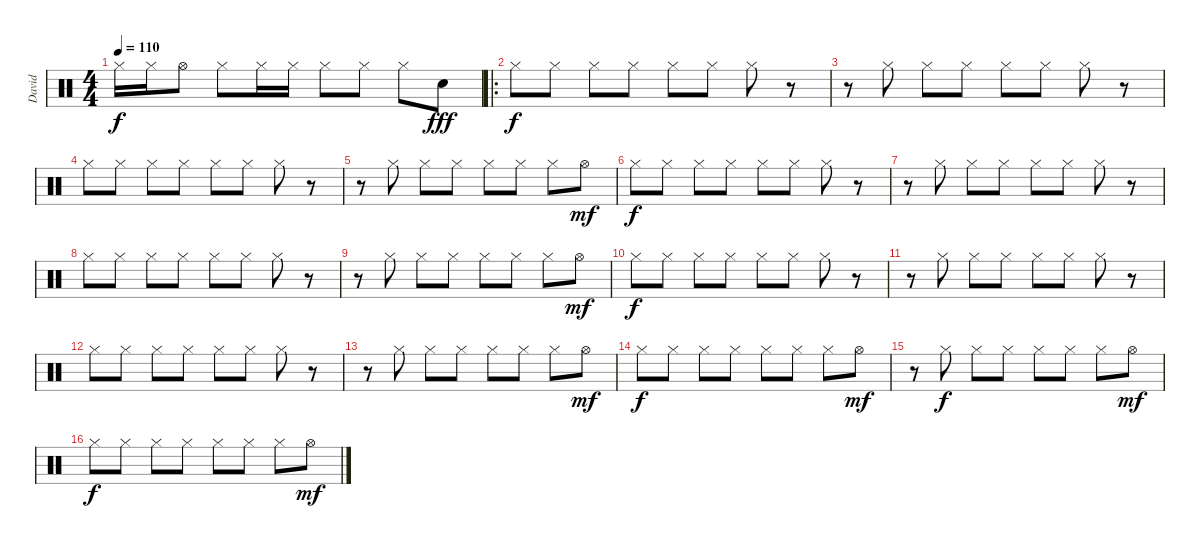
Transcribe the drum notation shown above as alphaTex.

\track ("David" "David") {instrument percussion}
\staff {score}
\articulation defaults
\ts (4 4)
\tempo 110
\clef neutral
\ks c "Hi-Hat (closed)".16{dy f} "Hi-Hat (closed)".16 "Hi-Hat (open)".8 "Hi-Hat (closed)".8 "Hi-Hat (closed)".16 "Hi-Hat (closed)".16 "Hi-Hat (closed)".8 "Hi-Hat (closed)".8 "Hi-Hat (closed)".8 "Metronome (bell)".8{dy fff}
|
\ro "Hi-Hat (closed)".8{dy f} "Hi-Hat (closed)".8 "Hi-Hat (closed)".8 "Hi-Hat (closed)".8 "Hi-Hat (closed)".8 "Hi-Hat (closed)".8 "Hi-Hat (closed)".8
r.8 |
r.8 "Hi-Hat (closed)".8 "Hi-Hat (closed)".8 "Hi-Hat (closed)".8 "Hi-Hat (closed)".8 "Hi-Hat (closed)".8 "Hi-Hat (closed)".8 r.8 |
"Hi-Hat (closed)".8 "Hi-Hat (closed)".8 "Hi-Hat (closed)".8 "Hi-Hat (closed)".8 "Hi-Hat (closed)".8 "Hi-Hat (closed)".8 "Hi-Hat (closed)".8 r.8 |
r.8 "Hi-Hat (closed)".8 "Hi-Hat (closed)".8 "Hi-Hat (closed)".8 "Hi-Hat (closed)".8 "Hi-Hat (closed)".8 "Hi-Hat (closed)".8 "Hi-Hat (open)".8{dy mf} |
"Hi-Hat (closed)".8{dy f} "Hi-Hat (closed)".8 "Hi-Hat (closed)".8 "Hi-Hat (closed)".8 "Hi-Hat (closed)".8 "Hi-Hat (closed)".8 "Hi-Hat (closed)".8 r.8 |
r.8 "Hi-Hat (closed)".8 "Hi-Hat (closed)".8 "Hi-Hat (closed)".8 "Hi-Hat (closed)".8 "Hi-Hat (closed)".8 "Hi-Hat (closed)".8 r.8 |
"Hi-Hat (closed)".8 "Hi-Hat (closed)".8 "Hi-Hat (closed)".8 "Hi-Hat (closed)".8 "Hi-Hat (closed)".8 "Hi-Hat (closed)".8 "Hi-Hat (closed)".8 r.8 |
r.8 "Hi-Hat (closed)".8 "Hi-Hat (closed)".8 "Hi-Hat (closed)".8 "Hi-Hat (closed)".8 "Hi-Hat (closed)".8 "Hi-Hat (closed)".8 "Hi-Hat (open)".8{dy mf} |
"Hi-Hat (closed)".8{dy f} "Hi-Hat (closed)".8 "Hi-Hat (closed)".8 "Hi-Hat (closed)".8 "Hi-Hat (closed)".8 "Hi-Hat (closed)".8 "Hi-Hat (closed)".8 r.8 |
r.8 "Hi-Hat (closed)".8 "Hi-Hat (closed)".8 "Hi-Hat (closed)".8 "Hi-Hat (closed)".8 "Hi-Hat (closed)".8 "Hi-Hat (closed)".8 r.8 |
"Hi-Hat (closed)".8 "Hi-Hat (closed)".8 "Hi-Hat (closed)".8 "Hi-Hat (closed)".8 "Hi-Hat (closed)".8 "Hi-Hat (closed)".8 "Hi-Hat (closed)".8 r.8 |
r.8 "Hi-Hat (closed)".8 "Hi-Hat (closed)".8 "Hi-Hat (closed)".8 "Hi-Hat (closed)".8 "Hi-Hat (closed)".8 "Hi-Hat (closed)".8 "Hi-Hat (open)".8{dy mf} |
"Hi-Hat (closed)".8{dy f} "Hi-Hat (closed)".8 "Hi-Hat (closed)".8 "Hi-Hat (closed)".8 "Hi-Hat (closed)".8 "Hi-Hat (closed)".8 "Hi-Hat (closed)".8 "Hi-Hat (open)".8{dy mf} |
r.8 "Hi-Hat (closed)".8{dy f} "Hi-Hat (closed)".8 "Hi-Hat (closed)".8 "Hi-Hat (closed)".8 "Hi-Hat (closed)".8 "Hi-Hat (closed)".8 "Hi-Hat (open)".8{dy mf} |
"Hi-Hat (closed)".8{dy f} "Hi-Hat (closed)".8 "Hi-Hat (closed)".8 "Hi-Hat (closed)".8 "Hi-Hat (closed)".8 "Hi-Hat (closed)".8 "Hi-Hat (closed)".8 "Hi-Hat (open)".8{dy mf}
